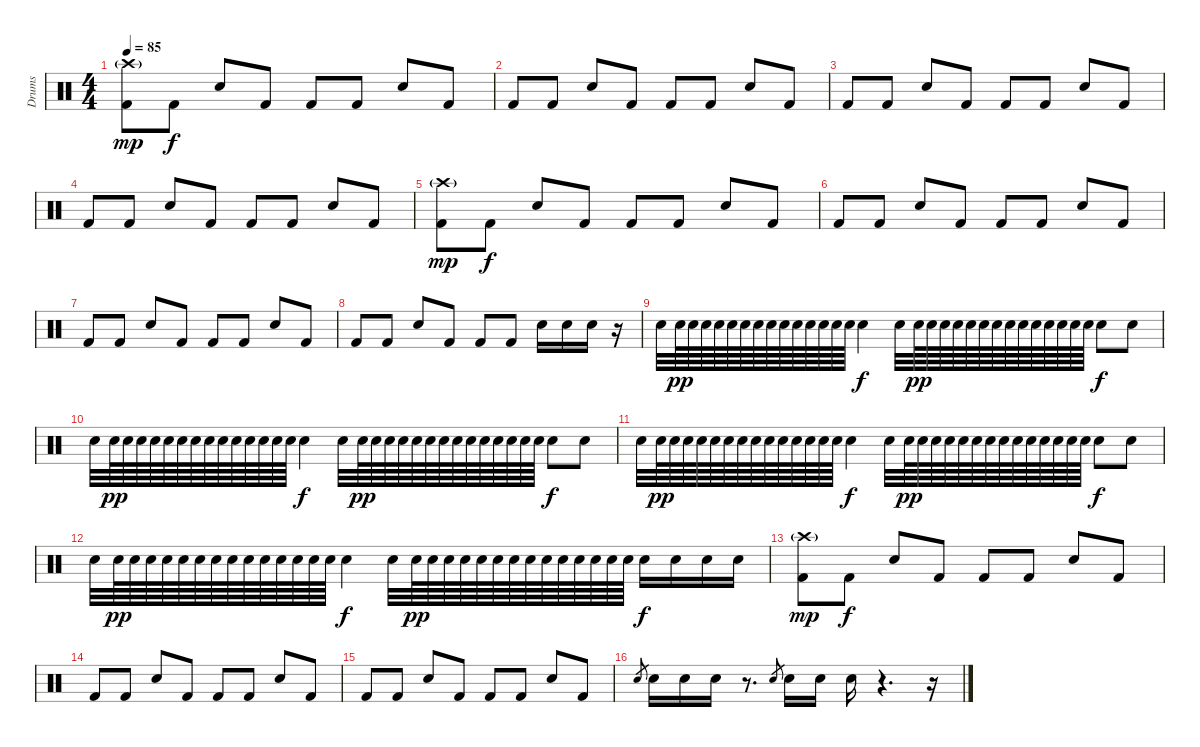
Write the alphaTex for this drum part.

\track ("Drums" "Drums") {instrument percussion}
\staff {score}
\articulation defaults
\ts (4 4)
\tempo 85
\clef neutral
\ks c
("Kick (hit) 2" "Crash high (hit)"{g}).8{dy mp} "Kick (hit) 2".8{dy f} "Electric Snare (hit)".8 "Kick (hit) 2".8 "Kick (hit) 2".8 "Kick (hit) 2".8 "Electric Snare (hit)".8 "Kick (hit) 2".8 |
"Kick (hit) 2".8 "Kick (hit) 2".8 "Electric Snare (hit)".8 "Kick (hit) 2".8 "Kick (hit) 2".8 "Kick (hit) 2".8 "Electric Snare (hit)".8 "Kick (hit) 2".8 |
"Kick (hit) 2".8 "Kick (hit) 2".8 "Electric Snare (hit)".8 "Kick (hit) 2".8 "Kick (hit) 2".8 "Kick (hit) 2".8 "Electric Snare (hit)".8 "Kick (hit) 2".8 |
"Kick (hit) 2".8 "Kick (hit) 2".8 "Electric Snare (hit)".8 "Kick (hit) 2".8 "Kick (hit) 2".8 "Kick (hit) 2".8 "Electric Snare (hit)".8 "Kick (hit) 2".8 |
("Kick (hit) 2" "Crash high (hit)"{g}).8{dy mp} "Kick (hit) 2".8{dy f} "Electric Snare (hit)".8 "Kick (hit) 2".8 "Kick (hit) 2".8 "Kick (hit) 2".8 "Electric Snare (hit)".8 "Kick (hit) 2".8 |
"Kick (hit) 2".8 "Kick (hit) 2".8 "Electric Snare (hit)".8 "Kick (hit) 2".8 "Kick (hit) 2".8 "Kick (hit) 2".8 "Electric Snare (hit)".8 "Kick (hit) 2".8 |
"Kick (hit) 2".8 "Kick (hit) 2".8 "Electric Snare (hit)".8 "Kick (hit) 2".8 "Kick (hit) 2".8 "Kick (hit) 2".8 "Electric Snare (hit)".8 "Kick (hit) 2".8 |
"Kick (hit) 2".8 "Kick (hit) 2".8 "Electric Snare (hit)".8 "Kick (hit) 2".8 "Kick (hit) 2".8 "Kick (hit) 2".8 "Electric Snare (hit)".16 "Electric Snare (hit)".16 "Electric Snare (hit)".16 r.16 |
"Electric Snare (hit)".32 "Electric Snare (hit)".64{dy pp} "Electric Snare (hit)".64 "Electric Snare (hit)".64 "Electric Snare (hit)".64 "Electric Snare (hit)".64 "Electric Snare (hit)".64 "Electric Snare (hit)".64 "Electric Snare (hit)".64 "Electric Snare (hit)".64 "Electric Snare (hit)".64 "Electric Snare (hit)".64 "Electric Snare (hit)".64 "Electric Snare (hit)".64 "Electric Snare (hit)".64 "Electric Snare (hit)".4{dy f} "Electric Snare (hit)".32 "Electric Snare (hit)".64{dy pp} "Electric Snare (hit)".64 "Electric Snare (hit)".64 "Electric Snare (hit)".64 "Electric Snare (hit)".64 "Electric Snare (hit)".64 "Electric Snare (hit)".64 "Electric Snare (hit)".64 "Electric Snare (hit)".64 "Electric Snare (hit)".64 "Electric Snare (hit)".64 "Electric Snare (hit)".64 "Electric Snare (hit)".64 "Electric Snare (hit)".64 "Electric Snare (hit)".8{dy f} "Electric Snare (hit)".8 |
"Electric Snare (hit)".32 "Electric Snare (hit)".64{dy pp} "Electric Snare (hit)".64 "Electric Snare (hit)".64 "Electric Snare (hit)".64 "Electric Snare (hit)".64 "Electric Snare (hit)".64 "Electric Snare (hit)".64 "Electric Snare (hit)".64 "Electric Snare (hit)".64 "Electric Snare (hit)".64 "Electric Snare (hit)".64 "Electric Snare (hit)".64 "Electric Snare (hit)".64 "Electric Snare (hit)".64 "Electric Snare (hit)".4{dy f} "Electric Snare (hit)".32 "Electric Snare (hit)".64{dy pp} "Electric Snare (hit)".64 "Electric Snare (hit)".64 "Electric Snare (hit)".64 "Electric Snare (hit)".64 "Electric Snare (hit)".64 "Electric Snare (hit)".64 "Electric Snare (hit)".64 "Electric Snare (hit)".64 "Electric Snare (hit)".64 "Electric Snare (hit)".64 "Electric Snare (hit)".64 "Electric Snare (hit)".64 "Electric Snare (hit)".64 "Electric Snare (hit)".8{dy f} "Electric Snare (hit)".8 |
"Electric Snare (hit)".32 "Electric Snare (hit)".64{dy pp} "Electric Snare (hit)".64 "Electric Snare (hit)".64 "Electric Snare (hit)".64 "Electric Snare (hit)".64 "Electric Snare (hit)".64 "Electric Snare (hit)".64 "Electric Snare (hit)".64 "Electric Snare (hit)".64 "Electric Snare (hit)".64 "Electric Snare (hit)".64 "Electric Snare (hit)".64 "Electric Snare (hit)".64 "Electric Snare (hit)".64 "Electric Snare (hit)".4{dy f} "Electric Snare (hit)".32 "Electric Snare (hit)".64{dy pp} "Electric Snare (hit)".64 "Electric Snare (hit)".64 "Electric Snare (hit)".64 "Electric Snare (hit)".64 "Electric Snare (hit)".64 "Electric Snare (hit)".64 "Electric Snare (hit)".64 "Electric Snare (hit)".64 "Electric Snare (hit)".64 "Electric Snare (hit)".64 "Electric Snare (hit)".64 "Electric Snare (hit)".64 "Electric Snare (hit)".64 "Electric Snare (hit)".8{dy f} "Electric Snare (hit)".8 |
"Electric Snare (hit)".32 "Electric Snare (hit)".64{dy pp} "Electric Snare (hit)".64 "Electric Snare (hit)".64 "Electric Snare (hit)".64 "Electric Snare (hit)".64 "Electric Snare (hit)".64 "Electric Snare (hit)".64 "Electric Snare (hit)".64 "Electric Snare (hit)".64 "Electric Snare (hit)".64 "Electric Snare (hit)".64 "Electric Snare (hit)".64 "Electric Snare (hit)".64 "Electric Snare (hit)".64 "Electric Snare (hit)".4{dy f} "Electric Snare (hit)".32 "Electric Snare (hit)".64{dy pp} "Electric Snare (hit)".64 "Electric Snare (hit)".64 "Electric Snare (hit)".64 "Electric Snare (hit)".64 "Electric Snare (hit)".64 "Electric Snare (hit)".64 "Electric Snare (hit)".64 "Electric Snare (hit)".64 "Electric Snare (hit)".64 "Electric Snare (hit)".64 "Electric Snare (hit)".64 "Electric Snare (hit)".64 "Electric Snare (hit)".64 "Electric Snare (hit)".16{dy f} "Electric Snare (hit)".16 "Electric Snare (hit)".16 "Electric Snare (hit)".16 |
("Kick (hit) 2" "Crash high (hit)"{g}).8{dy mp} "Kick (hit) 2".8{dy f} "Electric Snare (hit)".8 "Kick (hit) 2".8 "Kick (hit) 2".8 "Kick (hit) 2".8 "Electric Snare (hit)".8 "Kick (hit) 2".8 |
"Kick (hit) 2".8 "Kick (hit) 2".8 "Electric Snare (hit)".8 "Kick (hit) 2".8 "Kick (hit) 2".8 "Kick (hit) 2".8 "Electric Snare (hit)".8 "Kick (hit) 2".8 |
"Kick (hit) 2".8 "Kick (hit) 2".8 "Electric Snare (hit)".8 "Kick (hit) 2".8 "Kick (hit) 2".8 "Kick (hit) 2".8 "Electric Snare (hit)".8 "Kick (hit) 2".8 |
"Electric Snare (hit)".8{gr} "Electric Snare (hit)".16 "Electric Snare (hit)".16 "Electric Snare (hit)".16 r.8{d} "Electric Snare (hit)".8{gr} "Electric Snare (hit)".16 "Electric Snare (hit)".16 "Electric Snare (hit)".16 r.4{d} r.16
